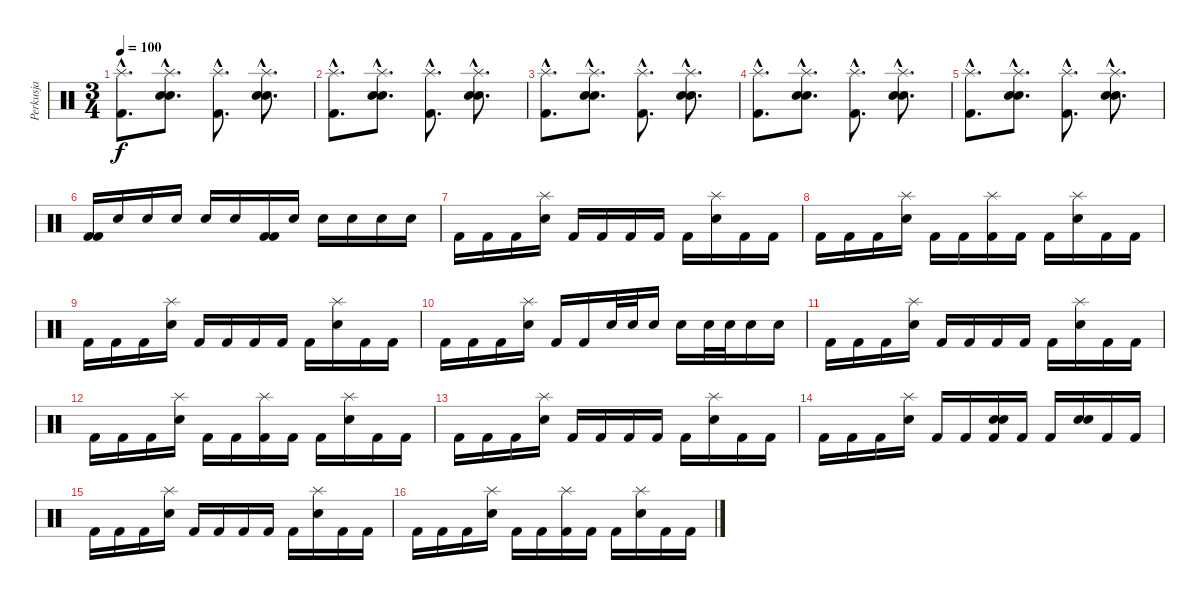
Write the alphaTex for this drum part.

\track ("Perkusja" "Perkusja") {instrument percussion}
\staff {score}
\articulation defaults
\ts (3 4)
\tempo 100
\clef neutral
\ks c
("Splash (hit)"{hac} "Kick (hit) 2"{hac}).8{d dy f} ("Splash (hit)"{hac} "Snare (hit) 2"{hac} "Snare (hit) 2"{hac}).8{d} ("Splash (hit)"{hac} "Kick (hit) 2"{hac}).8{d} ("Splash (hit)"{hac} "Snare (hit) 2"{hac} "Snare (hit) 2"{hac}).8{d} |
("Splash (hit)"{hac} "Kick (hit) 2"{hac}).8{d} ("Splash (hit)"{hac} "Snare (hit) 2"{hac} "Snare (hit) 2"{hac}).8{d} ("Splash (hit)"{hac} "Kick (hit) 2"{hac}).8{d} ("Splash (hit)"{hac} "Snare (hit) 2"{hac} "Snare (hit) 2"{hac}).8{d} |
("Splash (hit)"{hac} "Kick (hit) 2"{hac}).8{d} ("Splash (hit)"{hac} "Snare (hit) 2"{hac} "Snare (hit) 2"{hac}).8{d} ("Splash (hit)"{hac} "Kick (hit) 2"{hac}).8{d} ("Splash (hit)"{hac} "Snare (hit) 2"{hac} "Snare (hit) 2"{hac}).8{d} |
("Splash (hit)"{hac} "Kick (hit) 2"{hac}).8{d} ("Splash (hit)"{hac} "Snare (hit) 2"{hac} "Snare (hit) 2"{hac}).8{d} ("Splash (hit)"{hac} "Kick (hit) 2"{hac}).8{d} ("Splash (hit)"{hac} "Snare (hit) 2"{hac} "Snare (hit) 2"{hac}).8{d} |
("Splash (hit)"{hac} "Kick (hit) 2"{hac}).8{d} ("Splash (hit)"{hac} "Snare (hit) 2"{hac} "Snare (hit) 2"{hac}).8{d} ("Splash (hit)"{hac} "Kick (hit) 2"{hac}).8{d} ("Splash (hit)"{hac} "Snare (hit) 2"{hac} "Snare (hit) 2"{hac}).8{d} |
("Kick (hit) 2" "Kick (hit) 2").16 "Snare (hit) 2".16 "Snare (hit) 2".16 "Snare (hit) 2".16 "Snare (hit) 2".16 "Snare (hit) 2".16 ("Kick (hit) 2" "Kick (hit) 2").16 "Snare (hit) 2".16 "Snare (hit) 2".16 "Snare (hit) 2".16 "Snare (hit) 2".16 "Snare (hit) 2".16 |
"Kick (hit) 2".16 "Kick (hit) 2".16 "Kick (hit) 2".16 ("Splash (hit)" "Snare (hit) 2").16 "Kick (hit) 2".16 "Kick (hit) 2".16 "Kick (hit) 2".16 "Kick (hit) 2".16 "Kick (hit) 2".16 ("Splash (hit)" "Snare (hit) 2").16 "Kick (hit) 2".16 "Kick (hit) 2".16 |
"Kick (hit) 2".16 "Kick (hit) 2".16 "Kick (hit) 2".16 ("Splash (hit)" "Snare (hit) 2").16 "Kick (hit) 2".16 "Kick (hit) 2".16 ("Splash (hit)" "Kick (hit) 2").16 "Kick (hit) 2".16 "Kick (hit) 2".16 ("Splash (hit)" "Snare (hit) 2").16 "Kick (hit) 2".16 "Kick (hit) 2".16 |
"Kick (hit) 2".16 "Kick (hit) 2".16 "Kick (hit) 2".16 ("Splash (hit)" "Snare (hit) 2").16 "Kick (hit) 2".16 "Kick (hit) 2".16 "Kick (hit) 2".16 "Kick (hit) 2".16 "Kick (hit) 2".16 ("Splash (hit)" "Snare (hit) 2").16 "Kick (hit) 2".16 "Kick (hit) 2".16 |
"Kick (hit) 2".16 "Kick (hit) 2".16 "Kick (hit) 2".16 ("Splash (hit)" "Snare (hit) 2").16 "Kick (hit) 2".16 "Kick (hit) 2".16 "Snare (hit) 2".32 "Snare (hit) 2".32 "Snare (hit) 2".16 "Snare (hit) 2".16 "Snare (hit) 2".32 "Snare (hit) 2".32 "Snare (hit) 2".16 "Snare (hit) 2".16 |
"Kick (hit) 2".16 "Kick (hit) 2".16 "Kick (hit) 2".16 ("Splash (hit)" "Snare (hit) 2").16 "Kick (hit) 2".16 "Kick (hit) 2".16 "Kick (hit) 2".16 "Kick (hit) 2".16 "Kick (hit) 2".16 ("Splash (hit)" "Snare (hit) 2").16 "Kick (hit) 2".16 "Kick (hit) 2".16 |
"Kick (hit) 2".16 "Kick (hit) 2".16 "Kick (hit) 2".16 ("Splash (hit)" "Snare (hit) 2").16 "Kick (hit) 2".16 "Kick (hit) 2".16 ("Splash (hit)" "Kick (hit) 2").16 "Kick (hit) 2".16 "Kick (hit) 2".16 ("Splash (hit)" "Snare (hit) 2").16 "Kick (hit) 2".16 "Kick (hit) 2".16 |
"Kick (hit) 2".16 "Kick (hit) 2".16 "Kick (hit) 2".16 ("Splash (hit)" "Snare (hit) 2").16 "Kick (hit) 2".16 "Kick (hit) 2".16 "Kick (hit) 2".16 "Kick (hit) 2".16 "Kick (hit) 2".16 ("Splash (hit)" "Snare (hit) 2").16 "Kick (hit) 2".16 "Kick (hit) 2".16 |
"Kick (hit) 2".16 "Kick (hit) 2".16 "Kick (hit) 2".16 ("Splash (hit)" "Snare (hit) 2").16 "Kick (hit) 2".16 "Kick (hit) 2".16 ("Snare (hit) 2" "Snare (hit) 2" "Kick (hit) 2").16 "Kick (hit) 2".16 "Kick (hit) 2".16 ("Snare (hit) 2" "Snare (hit) 2").16 "Kick (hit) 2".16 "Kick (hit) 2".16 |
"Kick (hit) 2".16 "Kick (hit) 2".16 "Kick (hit) 2".16 ("Splash (hit)" "Snare (hit) 2").16 "Kick (hit) 2".16 "Kick (hit) 2".16 "Kick (hit) 2".16 "Kick (hit) 2".16 "Kick (hit) 2".16 ("Splash (hit)" "Snare (hit) 2").16 "Kick (hit) 2".16 "Kick (hit) 2".16 |
"Kick (hit) 2".16 "Kick (hit) 2".16 "Kick (hit) 2".16 ("Splash (hit)" "Snare (hit) 2").16 "Kick (hit) 2".16 "Kick (hit) 2".16 ("Splash (hit)" "Kick (hit) 2").16 "Kick (hit) 2".16 "Kick (hit) 2".16 ("Splash (hit)" "Snare (hit) 2").16 "Kick (hit) 2".16 "Kick (hit) 2".16
